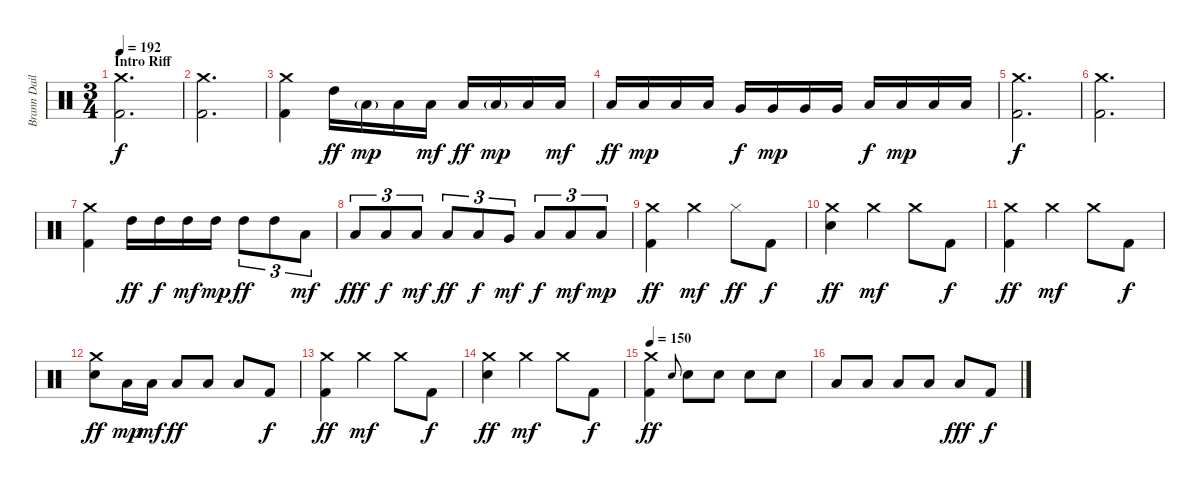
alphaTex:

\track ("Brann Dailor - Drums" "Brann Dail") {instrument percussion}
\staff {score}
\articulation defaults
\ts (3 4)
\section ("" "Intro Riff")
\tempo 192
\clef neutral
\ks c
("Crash medium (hit)" "Kick (hit) 2").2{d dy f} |
("Crash medium (hit)" "Kick (hit) 2").2{d} |
("Crash medium (hit)" "Kick (hit) 2").4 "High Tom (hit)".16{dy ff} "Low Tom (hit)"{g}.16{dy mp} "Low Tom (hit)".16 "Low Tom (hit)".16{dy mf} "Low Tom (hit)".16{dy ff} "Low Tom (hit)"{g}.16{dy mp} "Low Tom (hit)".16 "Low Tom (hit)".16{dy mf} |
"Low Tom (hit)".16{dy ff} "Low Tom (hit)".16{dy mp} "Low Tom (hit)".16 "Low Tom (hit)".16 "Very Low Tom (hit)".16{dy f} "Very Low Tom (hit)".16{dy mp} "Very Low Tom (hit)".16 "Very Low Tom (hit)".16 "Low Floor Tom (hit)".16{dy f} "Low Floor Tom (hit)".16{dy mp} "Low Floor Tom (hit)".16 "Low Floor Tom (hit)".16 |
("Crash medium (hit)" "Kick (hit) 2").2{d dy f} |
("Crash medium (hit)" "Kick (hit) 2").2{d} |
("Crash medium (hit)" "Kick (hit) 2").4 "High Tom (hit)".16{dy ff} "High Tom (hit)".16{dy f} "High Tom (hit)".16{dy mf} "High Tom (hit)".16{dy mp} "High Tom (hit)".8{tu (3 2) dy ff} "High Tom (hit)".8{tu (3 2)} "Low Tom (hit)".8{tu (3 2) dy mf} |
"Low Tom (hit)".8{tu (3 2) dy fff} "Low Tom (hit)".8{tu (3 2) dy f} "Low Tom (hit)".8{tu (3 2) dy mf} "Low Tom (hit)".8{tu (3 2) dy ff} "Low Tom (hit)".8{tu (3 2) dy f} "Very Low Tom (hit)".8{tu (3 2) dy mf} "Low Floor Tom (hit)".8{tu (3 2) dy f} "Low Floor Tom (hit)".8{tu (3 2) dy mf} "Low Floor Tom (hit)".8{tu (3 2) dy mp} |
("Crash medium (hit)" "Kick (hit) 2").4{dy ff} "Crash medium (hit)".4{dy mf} "Hi-Hat (closed)".8{dy ff} "Kick (hit) 2".8{dy f} |
("Crash medium (hit)" "Electric Snare (hit)").4{dy ff} "Crash medium (hit)".4{dy mf} "Crash medium (hit)".8 "Kick (hit) 2".8{dy f} |
("Crash medium (hit)" "Kick (hit) 2").4{dy ff} "Crash medium (hit)".4{dy mf} "Crash medium (hit)".8 "Kick (hit) 2".8{dy f} |
("Crash medium (hit)" "Electric Snare (hit)").8{dy ff} "Low Tom (hit)".16{dy mp} "Low Tom (hit)".16{dy mf} "Low Tom (hit)".8{dy ff} "Low Tom (hit)".8 "Low Tom (hit)".8 "Kick (hit) 2".8{dy f} |
("Crash medium (hit)" "Kick (hit) 2").4{dy ff} "Crash medium (hit)".4{dy mf} "Crash medium (hit)".8 "Kick (hit) 2".8{dy f} |
("Crash medium (hit)" "Electric Snare (hit)").4{dy ff} "Crash medium (hit)".4{dy mf} "Crash medium (hit)".8 "Kick (hit) 2".8{dy f} |
\tempo 150
("Crash medium (hit)" "Kick (hit) 2").4{dy ff} "Electric Snare (hit)".8{gr onbeat} "Electric Snare (hit)".8 "Electric Snare (hit)".8 "Electric Snare (hit)".8 "Electric Snare (hit)".8 |
"Low Tom (hit)".8 "Low Tom (hit)".8 "Low Tom (hit)".8 "Low Tom (hit)".8 "Low Floor Tom (hit)".8{dy fff} "Kick (hit) 2".8{dy f}
